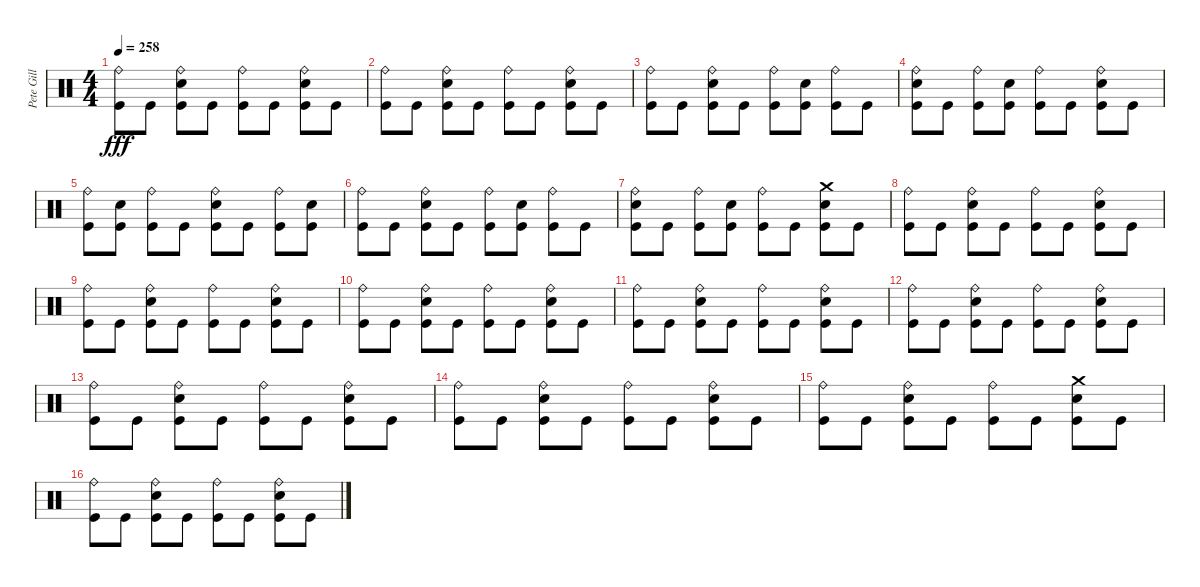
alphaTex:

\track ("Pete Gill" "Pete Gill") {instrument percussion}
\staff {score}
\articulation defaults
\ts (4 4)
\tempo 258
\clef neutral
\ks c
("Ride (bell)" "Kick (hit)").8{dy fff} "Kick (hit)".8 ("Ride (bell)" "Electric Snare (hit)" "Kick (hit)").8 "Kick (hit)".8 ("Ride (bell)" "Kick (hit)").8 "Kick (hit)".8 ("Ride (bell)" "Electric Snare (hit)" "Kick (hit)").8 "Kick (hit)".8 |
("Ride (bell)" "Kick (hit)").8 "Kick (hit)".8 ("Ride (bell)" "Electric Snare (hit)" "Kick (hit)").8 "Kick (hit)".8 ("Ride (bell)" "Kick (hit)").8 "Kick (hit)".8 ("Ride (bell)" "Electric Snare (hit)" "Kick (hit)").8 "Kick (hit)".8 |
("Ride (bell)" "Kick (hit)").8 "Kick (hit)".8 ("Ride (bell)" "Electric Snare (hit)" "Kick (hit)").8 "Kick (hit)".8 ("Ride (bell)" "Kick (hit)").8 ("Electric Snare (hit)" "Kick (hit)").8 ("Ride (bell)" "Kick (hit)").8 "Kick (hit)".8 |
("Ride (bell)" "Electric Snare (hit)" "Kick (hit)").8 "Kick (hit)".8 ("Ride (bell)" "Kick (hit)").8 ("Electric Snare (hit)" "Kick (hit)").8 ("Ride (bell)" "Kick (hit)").8 "Kick (hit)".8 ("Ride (bell)" "Electric Snare (hit)" "Kick (hit)").8 "Kick (hit)".8 |
("Ride (bell)" "Kick (hit)").8 ("Electric Snare (hit)" "Kick (hit)").8 ("Ride (bell)" "Kick (hit)").8 "Kick (hit)".8 ("Ride (bell)" "Electric Snare (hit)" "Kick (hit)").8 "Kick (hit)".8 ("Ride (bell)" "Kick (hit)").8 ("Electric Snare (hit)" "Kick (hit)").8 |
("Ride (bell)" "Kick (hit)").8 "Kick (hit)".8 ("Ride (bell)" "Electric Snare (hit)" "Kick (hit)").8 "Kick (hit)".8 ("Ride (bell)" "Kick (hit)").8 ("Electric Snare (hit)" "Kick (hit)").8 ("Ride (bell)" "Kick (hit)").8 "Kick (hit)".8 |
("Ride (bell)" "Electric Snare (hit)" "Kick (hit)").8 "Kick (hit)".8 ("Ride (bell)" "Kick (hit)").8 ("Electric Snare (hit)" "Kick (hit)").8 ("Ride (bell)" "Kick (hit)").8 "Kick (hit)".8 ("Crash medium (hit)" "Electric Snare (hit)" "Kick (hit)").8 "Kick (hit)".8 |
("Ride (bell)" "Kick (hit)").8 "Kick (hit)".8 ("Ride (bell)" "Electric Snare (hit)" "Kick (hit)").8 "Kick (hit)".8 ("Ride (bell)" "Kick (hit)").8 "Kick (hit)".8 ("Ride (bell)" "Electric Snare (hit)" "Kick (hit)").8 "Kick (hit)".8 |
("Ride (bell)" "Kick (hit)").8 "Kick (hit)".8 ("Ride (bell)" "Electric Snare (hit)" "Kick (hit)").8 "Kick (hit)".8 ("Ride (bell)" "Kick (hit)").8 "Kick (hit)".8 ("Ride (bell)" "Electric Snare (hit)" "Kick (hit)").8 "Kick (hit)".8 |
("Ride (bell)" "Kick (hit)").8 "Kick (hit)".8 ("Ride (bell)" "Electric Snare (hit)" "Kick (hit)").8 "Kick (hit)".8 ("Ride (bell)" "Kick (hit)").8 "Kick (hit)".8 ("Ride (bell)" "Electric Snare (hit)" "Kick (hit)").8 "Kick (hit)".8 |
("Ride (bell)" "Kick (hit)").8 "Kick (hit)".8 ("Ride (bell)" "Electric Snare (hit)" "Kick (hit)").8 "Kick (hit)".8 ("Ride (bell)" "Kick (hit)").8 "Kick (hit)".8 ("Ride (bell)" "Electric Snare (hit)" "Kick (hit)").8 "Kick (hit)".8 |
("Ride (bell)" "Kick (hit)").8 "Kick (hit)".8 ("Ride (bell)" "Electric Snare (hit)" "Kick (hit)").8 "Kick (hit)".8 ("Ride (bell)" "Kick (hit)").8 "Kick (hit)".8 ("Ride (bell)" "Electric Snare (hit)" "Kick (hit)").8 "Kick (hit)".8 |
("Ride (bell)" "Kick (hit)").8 "Kick (hit)".8 ("Ride (bell)" "Electric Snare (hit)" "Kick (hit)").8 "Kick (hit)".8 ("Ride (bell)" "Kick (hit)").8 "Kick (hit)".8 ("Ride (bell)" "Electric Snare (hit)" "Kick (hit)").8 "Kick (hit)".8 |
("Ride (bell)" "Kick (hit)").8 "Kick (hit)".8 ("Ride (bell)" "Electric Snare (hit)" "Kick (hit)").8 "Kick (hit)".8 ("Ride (bell)" "Kick (hit)").8 "Kick (hit)".8 ("Ride (bell)" "Electric Snare (hit)" "Kick (hit)").8 "Kick (hit)".8 |
("Ride (bell)" "Kick (hit)").8 "Kick (hit)".8 ("Ride (bell)" "Electric Snare (hit)" "Kick (hit)").8 "Kick (hit)".8 ("Ride (bell)" "Kick (hit)").8 "Kick (hit)".8 ("Crash medium (hit)" "Electric Snare (hit)" "Kick (hit)").8 "Kick (hit)".8 |
("Ride (bell)" "Kick (hit)").8 "Kick (hit)".8 ("Ride (bell)" "Electric Snare (hit)" "Kick (hit)").8 "Kick (hit)".8 ("Ride (bell)" "Kick (hit)").8 "Kick (hit)".8 ("Ride (bell)" "Electric Snare (hit)" "Kick (hit)").8 "Kick (hit)".8
